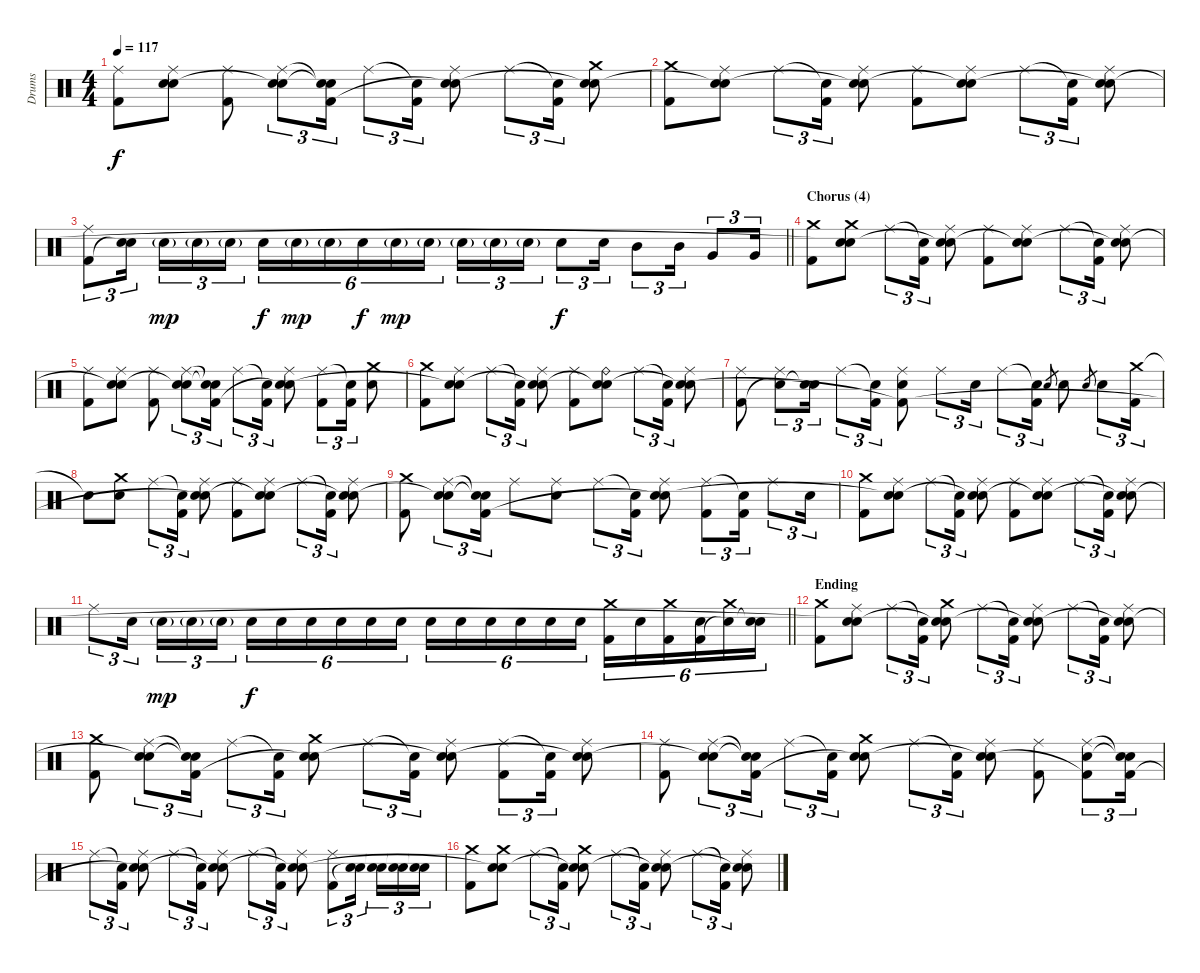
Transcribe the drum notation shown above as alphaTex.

\track ("Drums" "Drums") {instrument percussion}
\staff {score}
\articulation defaults
\ts (4 4)
\tempo 117
\clef neutral
\ks aminor
("Ride (middle)" "Kick (hit) 2").8{dy f} ("Ride (middle)" "Electric Snare (hit)" "Snare (hit)"{t}).8 ("Ride (middle)" "Kick (hit) 2").8 ("Ride (middle)" "Electric Snare (hit)" "Snare (hit)"{t}).8{tu (3 2)} ("Snare (hit)"{t} "Snare (hit)"{t} "Kick (hit) 2").16{tu (3 2)} "Ride (middle)".8{tu (3 2)} ("Snare (hit)"{t} "Kick (hit) 2").16{tu (3 2)} ("Ride (middle)" "Electric Snare (hit)" "Snare (hit)"{t}).8 "Ride (middle)".8{tu (3 2)} ("Snare (hit)"{t} "Kick (hit) 2").16{tu (3 2)} ("Crash medium (hit)" "Electric Snare (hit)" "Snare (hit)"{t}).8 |
("Crash medium (hit)" "Kick (hit) 2").8 ("Ride (middle)" "Electric Snare (hit)" "Snare (hit)"{t}).8 "Ride (middle)".8{tu (3 2)} ("Snare (hit)"{t} "Kick (hit) 2").16{tu (3 2)} ("Ride (middle)" "Electric Snare (hit)" "Snare (hit)"{t}).8 ("Ride (middle)" "Kick (hit) 2").8 ("Ride (middle)" "Electric Snare (hit)" "Snare (hit)"{t}).8 "Ride (middle)".8{tu (3 2)} ("Snare (hit)"{t} "Kick (hit) 2").16{tu (3 2)} ("Ride (middle)" "Electric Snare (hit)" "Snare (hit)"{t}).8 |
\barLineRight lightlight
("Ride (middle)" "Kick (hit) 2").8{tu (3 2)} ("Electric Snare (hit)" "Snare (hit)"{t}).16{tu (3 2)} "Electric Snare (hit)"{g}.16{tu (3 2) dy mp} "Electric Snare (hit)"{g}.16{tu (3 2)} "Electric Snare (hit)"{g}.16{tu (3 2)} "Electric Snare (hit)".16{tu (6 4) dy f} "Electric Snare (hit)"{g}.16{tu (6 4) dy mp} "Electric Snare (hit)"{g}.16{tu (6 4)} "Electric Snare (hit)".16{tu (6 4) dy f} "Electric Snare (hit)"{g}.16{tu (6 4) dy mp} "Electric Snare (hit)"{g}.16{tu (6 4)} "Electric Snare (hit)"{g}.16{tu (3 2)} "Electric Snare (hit)"{g}.16{tu (3 2)} "Electric Snare (hit)"{g}.16{tu (3 2)} "Electric Snare (hit)".8{tu (3 2) dy f} "Electric Snare (hit)".16{tu (3 2)} "Mid Tom (hit)".8{tu (3 2)} "Mid Tom (hit)".16{tu (3 2)} "Very Low Tom (hit)".8{tu (3 2)} "Very Low Tom (hit)".16{tu (3 2)} |
\section ("" "Chorus (4)")
("Crash medium (hit)" "Kick (hit) 2").8 ("Crash medium (hit)" "Electric Snare (hit)" "Snare (hit)"{t}).8 "Ride (middle)".8{tu (3 2)} ("Snare (hit)"{t} "Kick (hit) 2").16{tu (3 2)} ("Ride (middle)" "Electric Snare (hit)" "Snare (hit)"{t}).8 ("Ride (middle)" "Kick (hit) 2").8 ("Ride (middle)" "Electric Snare (hit)" "Snare (hit)"{t}).8 "Ride (middle)".8{tu (3 2)} ("Snare (hit)"{t} "Kick (hit) 2").16{tu (3 2)} ("Ride (middle)" "Electric Snare (hit)" "Snare (hit)"{t}).8 |
("Ride (middle)" "Kick (hit) 2").8 ("Ride (middle)" "Electric Snare (hit)" "Snare (hit)"{t}).8 ("Ride (middle)" "Kick (hit) 2").8 ("Ride (middle)" "Electric Snare (hit)" "Snare (hit)"{t}).8{tu (3 2)} ("Snare (hit)"{t} "Snare (hit)"{t} "Kick (hit) 2").16{tu (3 2)} "Ride (middle)".8{tu (3 2)} ("Snare (hit)"{t} "Kick (hit) 2").16{tu (3 2)} ("Ride (middle)" "Electric Snare (hit)" "Snare (hit)"{t}).8 ("Ride (middle)" "Kick (hit) 2").8{tu (3 2)} ("Snare (hit)"{t} "Kick (hit) 2").16{tu (3 2)} ("Crash medium (hit)" "Electric Snare (hit)").8 |
("Crash medium (hit)" "Kick (hit) 2").8 ("Ride (middle)" "Electric Snare (hit)" "Snare (hit)"{t}).8 "Ride (middle)".8{tu (3 2)} ("Snare (hit)"{t} "Kick (hit) 2").16{tu (3 2)} ("Ride (middle)" "Electric Snare (hit)" "Snare (hit)"{t}).8 ("Ride (middle)" "Kick (hit) 2").8 ("Ride (bell)" "Electric Snare (hit)" "Snare (hit)"{t}).8 "Ride (middle)".8{tu (3 2)} ("Snare (hit)"{t} "Kick (hit) 2").16{tu (3 2)} ("Ride (middle)" "Electric Snare (hit)" "Snare (hit)"{t}).8 |
("Ride (middle)" "Kick (hit) 2").8 ("Ride (middle)" "Snare (hit)"{t}).8{tu (3 2)} ("Electric Snare (hit)" "Snare (hit)"{t}).16{tu (3 2)} "Ride (middle)".8{tu (3 2)} ("Snare (hit)"{t} "Kick (hit) 2").16{tu (3 2)} ("Ride (middle)" "Electric Snare (hit)" "Kick (hit) 2"{t}).8 "Ride (middle)".8{tu (3 2)} "Electric Snare (hit)".16{tu (3 2)} "Ride (middle)".8{tu (3 2)} ("Snare (hit)"{t} "Kick (hit) 2").16{tu (3 2)} "Electric Snare (hit)".8{gr} "Electric Snare (hit)".8 "Electric Snare (hit)".8{gr} "Electric Snare (hit)".8{tu (3 2)} ("Crash medium (hit)" "Kick (hit) 2").16{tu (3 2)} |
"Snare (hit)"{t}.8 ("Crash medium (hit)" "Electric Snare (hit)").8 "Ride (middle)".8{tu (3 2)} ("Snare (hit)"{t} "Kick (hit) 2").16{tu (3 2)} ("Ride (middle)" "Electric Snare (hit)" "Snare (hit)"{t}).8 ("Ride (middle)" "Kick (hit) 2").8 ("Ride (middle)" "Electric Snare (hit)" "Snare (hit)"{t}).8 "Ride (middle)".8{tu (3 2)} ("Snare (hit)"{t} "Kick (hit) 2").16{tu (3 2)} ("Ride (middle)" "Electric Snare (hit)" "Snare (hit)"{t}).8 |
("Crash medium (hit)" "Kick (hit) 2").8 ("Ride (middle)" "Electric Snare (hit)" "Snare (hit)"{t}).8{tu (3 2)} ("Snare (hit)"{t} "Snare (hit)"{t} "Kick (hit) 2").16{tu (3 2)} "Ride (middle)".8 ("Ride (middle)" "Electric Snare (hit)").8 "Ride (middle)".8{tu (3 2)} ("Snare (hit)"{t} "Kick (hit) 2").16{tu (3 2)} ("Ride (middle)" "Electric Snare (hit)" "Snare (hit)"{t}).8 ("Ride (middle)" "Kick (hit) 2").8{tu (3 2)} ("Snare (hit)"{t} "Kick (hit) 2").16{tu (3 2)} "Ride (middle)".8{tu (3 2)} "Electric Snare (hit)".16{tu (3 2)} |
("Crash medium (hit)" "Kick (hit) 2").8 ("Ride (middle)" "Electric Snare (hit)" "Snare (hit)"{t}).8 "Ride (middle)".8{tu (3 2)} ("Snare (hit)"{t} "Kick (hit) 2").16{tu (3 2)} ("Ride (middle)" "Electric Snare (hit)" "Snare (hit)"{t}).8 ("Ride (middle)" "Kick (hit) 2").8 ("Ride (middle)" "Electric Snare (hit)" "Snare (hit)"{t}).8 "Ride (middle)".8{tu (3 2)} ("Snare (hit)"{t} "Kick (hit) 2").16{tu (3 2)} ("Ride (middle)" "Electric Snare (hit)" "Snare (hit)"{t}).8 |
\barLineRight lightlight "Ride (middle)".8{tu (3 2)} "Electric Snare (hit)".16{tu (3 2)} "Electric Snare (hit)"{g}.16{tu (3 2) dy mp} "Electric Snare (hit)"{g}.16{tu (3 2)} "Electric Snare (hit)"{g}.16{tu (3 2)} "Electric Snare (hit)".16{tu (6 4) dy f} "Electric Snare (hit)".16{tu (6 4)} "Electric Snare (hit)".16{tu (6 4)} "Electric Snare (hit)".16{tu (6 4)} "Electric Snare (hit)".16{tu (6 4)} "Electric Snare (hit)".16{tu (6 4)} "Electric Snare (hit)".16{tu (6 4)} "Electric Snare (hit)".16{tu (6 4)} "Electric Snare (hit)".16{tu (6 4)} "Electric Snare (hit)".16{tu (6 4)} "Electric Snare (hit)".16{tu (6 4)} "Electric Snare (hit)".16{tu (6 4)}
("Crash medium (hit)" "Kick (hit) 2").16{tu (6 4)} "Electric Snare (hit)".16{tu (6 4)} ("Crash medium (hit)" "Kick (hit) 2").16{tu (6 4)} ("Electric Snare (hit)" "Kick (hit) 2").16{tu (6 4)} ("Crash medium (hit)" "Snare (hit)"{t}).16{tu (6 4)} ("Electric Snare (hit)" "Snare (hit)"{t}).16{tu (6 4)} |
\section ("" "Ending")
("Crash medium (hit)" "Kick (hit) 2").8 ("Ride (middle)" "Electric Snare (hit)" "Snare (hit)"{t}).8 "Ride (middle)".8{tu (3 2)} ("Snare (hit)"{t} "Kick (hit) 2").16{tu (3 2)} ("Crash medium (hit)" "Electric Snare (hit)" "Snare (hit)"{t}).8 "Ride (middle)".8{tu (3 2)} ("Snare (hit)"{t} "Kick (hit) 2").16{tu (3 2)} ("Ride (middle)" "Electric Snare (hit)" "Snare (hit)"{t}).8 "Ride (middle)".8{tu (3 2)} ("Snare (hit)"{t} "Kick (hit) 2").16{tu (3 2)} ("Ride (middle)" "Electric Snare (hit)" "Snare (hit)"{t}).8 |
("Crash medium (hit)" "Kick (hit) 2").8 ("Ride (middle)" "Electric Snare (hit)" "Snare (hit)"{t}).8{tu (3 2)} ("Snare (hit)"{t} "Snare (hit)"{t} "Kick (hit) 2").16{tu (3 2)} "Ride (middle)".8{tu (3 2)} ("Snare (hit)"{t} "Kick (hit) 2").16{tu (3 2)} ("Crash medium (hit)" "Electric Snare (hit)" "Snare (hit)"{t}).8 "Ride (middle)".8{tu (3 2)} ("Snare (hit)"{t} "Kick (hit) 2").16{tu (3 2)} ("Ride (middle)" "Electric Snare (hit)" "Snare (hit)"{t}).8 ("Ride (middle)" "Kick (hit) 2").8{tu (3 2)} ("Snare (hit)"{t} "Kick (hit) 2").16{tu (3 2)} ("Ride (middle)" "Electric Snare (hit)" "Snare (hit)"{t}).8 |
("Ride (middle)" "Kick (hit) 2").8 ("Ride (middle)" "Electric Snare (hit)" "Snare (hit)"{t}).8{tu (3 2)} ("Snare (hit)"{t} "Snare (hit)"{t} "Kick (hit) 2").16{tu (3 2)} "Ride (middle)".8{tu (3 2)} ("Snare (hit)"{t} "Kick (hit) 2").16{tu (3 2)} ("Crash medium (hit)" "Electric Snare (hit)" "Snare (hit)"{t}).8 "Ride (middle)".8{tu (3 2)} ("Snare (hit)"{t} "Kick (hit) 2").16{tu (3 2)} ("Ride (middle)" "Electric Snare (hit)" "Snare (hit)"{t}).8 ("Ride (middle)" "Kick (hit) 2").8 ("Ride (middle)" "Electric Snare (hit)" "Kick (hit) 2"{t}).8{tu (3 2)} ("Snare (hit)"{t} "Snare (hit)"{t} "Kick (hit) 2").16{tu (3 2)} |
"Ride (middle)".8{tu (3 2)} ("Snare (hit)"{t} "Kick (hit) 2").16{tu (3 2)} ("Ride (middle)" "Electric Snare (hit)" "Snare (hit)"{t}).8 "Ride (middle)".8{tu (3 2)} ("Snare (hit)"{t} "Kick (hit) 2").16{tu (3 2)} ("Ride (middle)" "Electric Snare (hit)" "Snare (hit)"{t}).8 "Ride (middle)".8{tu (3 2)} ("Snare (hit)"{t} "Kick (hit) 2").16{tu (3 2)} ("Ride (middle)" "Electric Snare (hit)" "Snare (hit)"{t}).8 ("Ride (middle)" "Kick (hit) 2").8{tu (3 2)} ("Electric Snare (hit)" "Snare (hit)"{t}).16{tu (3 2)} ("Electric Snare (hit)" "Snare (hit)"{t}).16{tu (3 2)} ("Electric Snare (hit)" "Snare (hit)"{t}).16{tu (3 2)} ("Electric Snare (hit)" "Snare (hit)"{t}).16{tu (3 2)} |
("Crash medium (hit)" "Kick (hit) 2").8 ("Crash medium (hit)" "Electric Snare (hit)" "Snare (hit)"{t}).8 "Ride (middle)".8{tu (3 2)} ("Snare (hit)"{t} "Kick (hit) 2").16{tu (3 2)} ("Crash medium (hit)" "Electric Snare (hit)" "Snare (hit)"{t}).8 "Ride (middle)".8{tu (3 2)} ("Snare (hit)"{t} "Kick (hit) 2").16{tu (3 2)} ("Ride (middle)" "Electric Snare (hit)" "Snare (hit)"{t}).8 "Ride (middle)".8{tu (3 2)} ("Snare (hit)"{t} "Kick (hit) 2").16{tu (3 2)} ("Ride (middle)" "Electric Snare (hit)" "Snare (hit)"{t}).8
